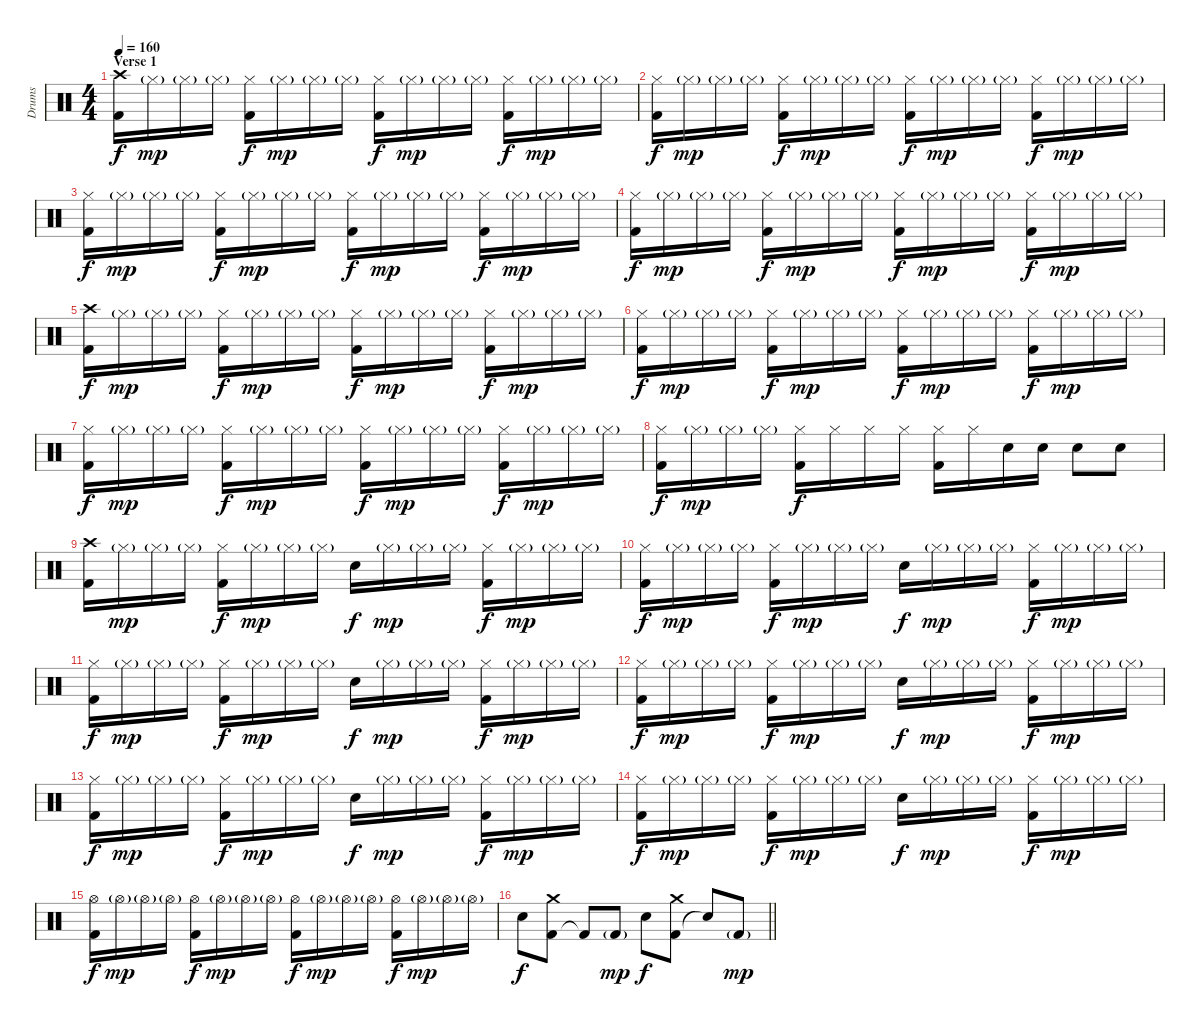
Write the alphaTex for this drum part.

\track ("Drums" "Drums") {instrument percussion}
\staff {score}
\articulation defaults
\ts (4 4)
\section ("" "Verse 1")
\tempo 160
\clef neutral
\ks c
("Kick (hit) 2" "Crash high (hit)").16{dy f} "Hi-Hat (closed)"{g}.16{dy mp} "Hi-Hat (closed)"{g}.16 "Hi-Hat (closed)"{g}.16 ("Kick (hit) 2" "Hi-Hat (closed)").16{dy f} "Hi-Hat (closed)"{g}.16{dy mp} "Hi-Hat (closed)"{g}.16 "Hi-Hat (closed)"{g}.16 ("Kick (hit) 2" "Hi-Hat (closed)").16{dy f} "Hi-Hat (closed)"{g}.16{dy mp} "Hi-Hat (closed)"{g}.16 "Hi-Hat (closed)"{g}.16 ("Kick (hit) 2" "Hi-Hat (closed)").16{dy f} "Hi-Hat (closed)"{g}.16{dy mp} "Hi-Hat (closed)"{g}.16 "Hi-Hat (closed)"{g}.16 |
("Kick (hit) 2" "Hi-Hat (closed)").16{dy f} "Hi-Hat (closed)"{g}.16{dy mp} "Hi-Hat (closed)"{g}.16 "Hi-Hat (closed)"{g}.16 ("Kick (hit) 2" "Hi-Hat (closed)").16{dy f} "Hi-Hat (closed)"{g}.16{dy mp} "Hi-Hat (closed)"{g}.16 "Hi-Hat (closed)"{g}.16 ("Kick (hit) 2" "Hi-Hat (closed)").16{dy f} "Hi-Hat (closed)"{g}.16{dy mp} "Hi-Hat (closed)"{g}.16 "Hi-Hat (closed)"{g}.16 ("Kick (hit) 2" "Hi-Hat (closed)").16{dy f} "Hi-Hat (closed)"{g}.16{dy mp} "Hi-Hat (closed)"{g}.16 "Hi-Hat (closed)"{g}.16 |
("Kick (hit) 2" "Hi-Hat (closed)").16{dy f} "Hi-Hat (closed)"{g}.16{dy mp} "Hi-Hat (closed)"{g}.16 "Hi-Hat (closed)"{g}.16 ("Kick (hit) 2" "Hi-Hat (closed)").16{dy f} "Hi-Hat (closed)"{g}.16{dy mp} "Hi-Hat (closed)"{g}.16 "Hi-Hat (closed)"{g}.16 ("Kick (hit) 2" "Hi-Hat (closed)").16{dy f} "Hi-Hat (closed)"{g}.16{dy mp} "Hi-Hat (closed)"{g}.16 "Hi-Hat (closed)"{g}.16 ("Kick (hit) 2" "Hi-Hat (closed)").16{dy f} "Hi-Hat (closed)"{g}.16{dy mp} "Hi-Hat (closed)"{g}.16 "Hi-Hat (closed)"{g}.16 |
("Kick (hit) 2" "Hi-Hat (closed)").16{dy f} "Hi-Hat (closed)"{g}.16{dy mp} "Hi-Hat (closed)"{g}.16 "Hi-Hat (closed)"{g}.16 ("Kick (hit) 2" "Hi-Hat (closed)").16{dy f} "Hi-Hat (closed)"{g}.16{dy mp} "Hi-Hat (closed)"{g}.16 "Hi-Hat (closed)"{g}.16 ("Kick (hit) 2" "Hi-Hat (closed)").16{dy f} "Hi-Hat (closed)"{g}.16{dy mp} "Hi-Hat (closed)"{g}.16 "Hi-Hat (closed)"{g}.16 ("Kick (hit) 2" "Hi-Hat (closed)").16{dy f} "Hi-Hat (closed)"{g}.16{dy mp} "Hi-Hat (closed)"{g}.16 "Hi-Hat (closed)"{g}.16 |
("Kick (hit) 2" "Crash high (hit)").16{dy f} "Hi-Hat (closed)"{g}.16{dy mp} "Hi-Hat (closed)"{g}.16 "Hi-Hat (closed)"{g}.16 ("Kick (hit) 2" "Hi-Hat (closed)").16{dy f} "Hi-Hat (closed)"{g}.16{dy mp} "Hi-Hat (closed)"{g}.16 "Hi-Hat (closed)"{g}.16 ("Kick (hit) 2" "Hi-Hat (closed)").16{dy f} "Hi-Hat (closed)"{g}.16{dy mp} "Hi-Hat (closed)"{g}.16 "Hi-Hat (closed)"{g}.16 ("Kick (hit) 2" "Hi-Hat (closed)").16{dy f} "Hi-Hat (closed)"{g}.16{dy mp} "Hi-Hat (closed)"{g}.16 "Hi-Hat (closed)"{g}.16 |
("Kick (hit) 2" "Hi-Hat (closed)").16{dy f} "Hi-Hat (closed)"{g}.16{dy mp} "Hi-Hat (closed)"{g}.16 "Hi-Hat (closed)"{g}.16 ("Kick (hit) 2" "Hi-Hat (closed)").16{dy f} "Hi-Hat (closed)"{g}.16{dy mp} "Hi-Hat (closed)"{g}.16 "Hi-Hat (closed)"{g}.16 ("Kick (hit) 2" "Hi-Hat (closed)").16{dy f} "Hi-Hat (closed)"{g}.16{dy mp} "Hi-Hat (closed)"{g}.16 "Hi-Hat (closed)"{g}.16 ("Kick (hit) 2" "Hi-Hat (closed)").16{dy f} "Hi-Hat (closed)"{g}.16{dy mp} "Hi-Hat (closed)"{g}.16 "Hi-Hat (closed)"{g}.16 |
("Kick (hit) 2" "Hi-Hat (closed)").16{dy f} "Hi-Hat (closed)"{g}.16{dy mp} "Hi-Hat (closed)"{g}.16 "Hi-Hat (closed)"{g}.16 ("Kick (hit) 2" "Hi-Hat (closed)").16{dy f} "Hi-Hat (closed)"{g}.16{dy mp} "Hi-Hat (closed)"{g}.16 "Hi-Hat (closed)"{g}.16 ("Kick (hit) 2" "Hi-Hat (closed)").16{dy f} "Hi-Hat (closed)"{g}.16{dy mp} "Hi-Hat (closed)"{g}.16 "Hi-Hat (closed)"{g}.16 ("Kick (hit) 2" "Hi-Hat (closed)").16{dy f} "Hi-Hat (closed)"{g}.16{dy mp} "Hi-Hat (closed)"{g}.16 "Hi-Hat (closed)"{g}.16 |
("Kick (hit) 2" "Hi-Hat (closed)").16{dy f} "Hi-Hat (closed)"{g}.16{dy mp} "Hi-Hat (closed)"{g}.16 "Hi-Hat (closed)"{g}.16 ("Kick (hit) 2" "Hi-Hat (closed)").16{dy f} "Hi-Hat (closed)".16 "Hi-Hat (closed)".16 "Hi-Hat (closed)".16 ("Kick (hit) 2" "Hi-Hat (closed)").16 "Hi-Hat (closed)".16 "Electric Snare (hit)".16 "Electric Snare (hit)".16 "Electric Snare (hit)".8 "Electric Snare (hit)".8 |
("Kick (hit) 2" "Crash high (hit)").16 "Hi-Hat (closed)"{g}.16{dy mp} "Hi-Hat (closed)"{g}.16 "Hi-Hat (closed)"{g}.16 ("Kick (hit) 2" "Hi-Hat (closed)").16{dy f} "Hi-Hat (closed)"{g}.16{dy mp} "Hi-Hat (closed)"{g}.16 "Hi-Hat (closed)"{g}.16 "Electric Snare (hit)".16{dy f} "Hi-Hat (closed)"{g}.16{dy mp} "Hi-Hat (closed)"{g}.16 "Hi-Hat (closed)"{g}.16 ("Kick (hit) 2" "Hi-Hat (closed)").16{dy f} "Hi-Hat (closed)"{g}.16{dy mp} "Hi-Hat (closed)"{g}.16 "Hi-Hat (closed)"{g}.16 |
("Kick (hit) 2" "Hi-Hat (closed)").16{dy f} "Hi-Hat (closed)"{g}.16{dy mp} "Hi-Hat (closed)"{g}.16 "Hi-Hat (closed)"{g}.16 ("Kick (hit) 2" "Hi-Hat (closed)").16{dy f} "Hi-Hat (closed)"{g}.16{dy mp} "Hi-Hat (closed)"{g}.16 "Hi-Hat (closed)"{g}.16 "Electric Snare (hit)".16{dy f} "Hi-Hat (closed)"{g}.16{dy mp} "Hi-Hat (closed)"{g}.16 "Hi-Hat (closed)"{g}.16 ("Kick (hit) 2" "Hi-Hat (closed)").16{dy f} "Hi-Hat (closed)"{g}.16{dy mp} "Hi-Hat (closed)"{g}.16 "Hi-Hat (closed)"{g}.16 |
("Kick (hit) 2" "Hi-Hat (closed)").16{dy f} "Hi-Hat (closed)"{g}.16{dy mp} "Hi-Hat (closed)"{g}.16 "Hi-Hat (closed)"{g}.16 ("Kick (hit) 2" "Hi-Hat (closed)").16{dy f} "Hi-Hat (closed)"{g}.16{dy mp} "Hi-Hat (closed)"{g}.16 "Hi-Hat (closed)"{g}.16 "Electric Snare (hit)".16{dy f} "Hi-Hat (closed)"{g}.16{dy mp} "Hi-Hat (closed)"{g}.16 "Hi-Hat (closed)"{g}.16 ("Kick (hit) 2" "Hi-Hat (closed)").16{dy f} "Hi-Hat (closed)"{g}.16{dy mp} "Hi-Hat (closed)"{g}.16 "Hi-Hat (closed)"{g}.16 |
("Kick (hit) 2" "Hi-Hat (closed)").16{dy f} "Hi-Hat (closed)"{g}.16{dy mp} "Hi-Hat (closed)"{g}.16 "Hi-Hat (closed)"{g}.16 ("Kick (hit) 2" "Hi-Hat (closed)").16{dy f} "Hi-Hat (closed)"{g}.16{dy mp} "Hi-Hat (closed)"{g}.16 "Hi-Hat (closed)"{g}.16 "Electric Snare (hit)".16{dy f} "Hi-Hat (closed)"{g}.16{dy mp} "Hi-Hat (closed)"{g}.16 "Hi-Hat (closed)"{g}.16 ("Kick (hit) 2" "Hi-Hat (closed)").16{dy f} "Hi-Hat (closed)"{g}.16{dy mp} "Hi-Hat (closed)"{g}.16 "Hi-Hat (closed)"{g}.16 |
("Kick (hit) 2" "Hi-Hat (closed)").16{dy f} "Hi-Hat (closed)"{g}.16{dy mp} "Hi-Hat (closed)"{g}.16 "Hi-Hat (closed)"{g}.16 ("Kick (hit) 2" "Hi-Hat (closed)").16{dy f} "Hi-Hat (closed)"{g}.16{dy mp} "Hi-Hat (closed)"{g}.16 "Hi-Hat (closed)"{g}.16 "Electric Snare (hit)".16{dy f} "Hi-Hat (closed)"{g}.16{dy mp} "Hi-Hat (closed)"{g}.16 "Hi-Hat (closed)"{g}.16 ("Kick (hit) 2" "Hi-Hat (closed)").16{dy f} "Hi-Hat (closed)"{g}.16{dy mp} "Hi-Hat (closed)"{g}.16 "Hi-Hat (closed)"{g}.16 |
("Kick (hit) 2" "Hi-Hat (closed)").16{dy f} "Hi-Hat (closed)"{g}.16{dy mp} "Hi-Hat (closed)"{g}.16 "Hi-Hat (closed)"{g}.16 ("Kick (hit) 2" "Hi-Hat (closed)").16{dy f} "Hi-Hat (closed)"{g}.16{dy mp} "Hi-Hat (closed)"{g}.16 "Hi-Hat (closed)"{g}.16 "Electric Snare (hit)".16{dy f} "Hi-Hat (closed)"{g}.16{dy mp} "Hi-Hat (closed)"{g}.16 "Hi-Hat (closed)"{g}.16 ("Kick (hit) 2" "Hi-Hat (closed)").16{dy f} "Hi-Hat (closed)"{g}.16{dy mp} "Hi-Hat (closed)"{g}.16 "Hi-Hat (closed)"{g}.16 |
("Kick (hit) 2" "Hi-Hat (open)").16{dy f} "Hi-Hat (open)"{g}.16{dy mp} "Hi-Hat (open)"{g}.16 "Hi-Hat (open)"{g}.16 ("Kick (hit) 2" "Hi-Hat (open)").16{dy f} "Hi-Hat (open)"{g}.16{dy mp} "Hi-Hat (open)"{g}.16 "Hi-Hat (open)"{g}.16 ("Kick (hit) 2" "Hi-Hat (open)").16{dy f} "Hi-Hat (open)"{g}.16{dy mp} "Hi-Hat (open)"{g}.16 "Hi-Hat (open)"{g}.16 ("Kick (hit) 2" "Hi-Hat (open)").16{dy f} "Hi-Hat (open)"{g}.16{dy mp} "Hi-Hat (open)"{g}.16 "Hi-Hat (open)"{g}.16 |
\barLineRight lightlight "Electric Snare (hit)".8{dy f}
("Kick (hit) 2" "Crash medium (hit)").8 "Kick (hit) 2"{t}.8 "Kick (hit) 2"{g}.8{dy mp} "Electric Snare (hit)".8{dy f} ("Kick (hit) 2" "Crash medium (hit)").8 "Snare (hit)"{t}.8 "Kick (hit) 2"{g}.8{dy mp}
